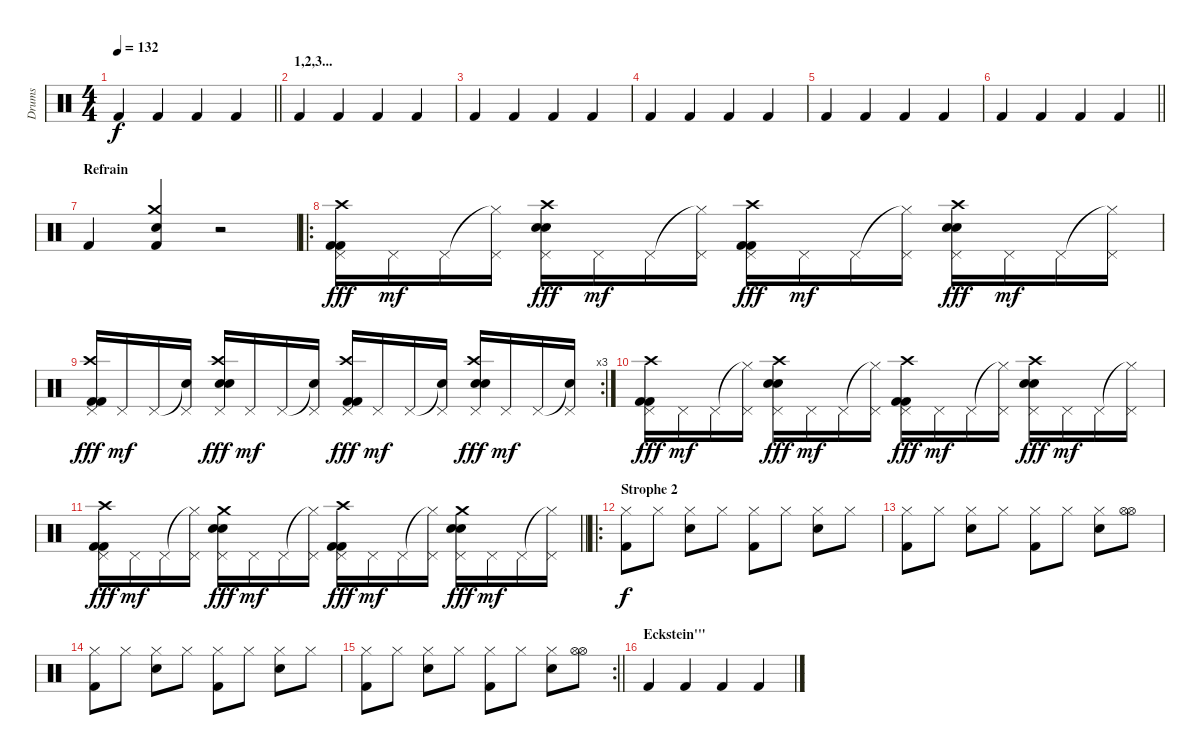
\track ("Drums" "Drums") {instrument percussion}
\staff {score}
\articulation defaults
\ts (4 4)
\tempo 132
\clef neutral
\barLineRight lightlight
\ks c "Kick (hit) 2".4{dy f} "Kick (hit) 2".4 "Kick (hit) 2".4 "Kick (hit) 2".4
|
\section ("" "1,2,3...")
"Kick (hit) 2".4 "Kick (hit) 2".4 "Kick (hit) 2".4 "Kick (hit) 2".4 |
"Kick (hit) 2".4 "Kick (hit) 2".4 "Kick (hit) 2".4 "Kick (hit) 2".4 |
"Kick (hit) 2".4 "Kick (hit) 2".4 "Kick (hit) 2".4 "Kick (hit) 2".4 |
"Kick (hit) 2".4 "Kick (hit) 2".4 "Kick (hit) 2".4 "Kick (hit) 2".4 |
\barLineRight lightlight "Kick (hit) 2".4 "Kick (hit) 2".4 "Kick (hit) 2".4 "Kick (hit) 2".4
|
\section ("" "Refrain")
"Kick (hit) 2".4 ("Crash medium (hit)" "Electric Snare (hit)" "Kick (hit) 2").4 r.2 |
\ro
("Crash high (hit)" "Pedal Hi-Hat (hit)" "Kick (hit) 2" "Kick (hit) 2").16{dy fff} "Pedal Hi-Hat (hit)".16{dy mf} "Pedal Hi-Hat (hit)".16 ("Hi-Hat (closed)"{t} "Pedal Hi-Hat (hit)").16 ("Crash high (hit)" "Pedal Hi-Hat (hit)" "Electric Snare (hit)" "Electric Snare (hit)").16{dy fff} "Pedal Hi-Hat (hit)".16{dy mf} "Pedal Hi-Hat (hit)".16 ("Hi-Hat (closed)"{t} "Pedal Hi-Hat (hit)").16 ("Crash high (hit)" "Pedal Hi-Hat (hit)" "Kick (hit) 2" "Kick (hit) 2").16{dy fff} "Pedal Hi-Hat (hit)".16{dy mf} "Pedal Hi-Hat (hit)".16 ("Hi-Hat (closed)"{t} "Pedal Hi-Hat (hit)").16 ("Crash high (hit)" "Pedal Hi-Hat (hit)" "Electric Snare (hit)" "Electric Snare (hit)").16{dy fff} "Pedal Hi-Hat (hit)".16{dy mf} "Pedal Hi-Hat (hit)".16 ("Hi-Hat (closed)"{t} "Pedal Hi-Hat (hit)").16 |
\rc 3
("Crash high (hit)" "Pedal Hi-Hat (hit)" "Kick (hit) 2" "Kick (hit) 2").16{dy fff} "Pedal Hi-Hat (hit)".16{dy mf} "Pedal Hi-Hat (hit)".16 ("Snare (hit)"{t} "Pedal Hi-Hat (hit)").16 ("Crash high (hit)" "Pedal Hi-Hat (hit)" "Electric Snare (hit)" "Electric Snare (hit)").16{dy fff} "Pedal Hi-Hat (hit)".16{dy mf} "Pedal Hi-Hat (hit)".16 ("Snare (hit)"{t} "Pedal Hi-Hat (hit)").16 ("Crash high (hit)" "Pedal Hi-Hat (hit)" "Kick (hit) 2" "Kick (hit) 2").16{dy fff} "Pedal Hi-Hat (hit)".16{dy mf} "Pedal Hi-Hat (hit)".16 ("Snare (hit)"{t} "Pedal Hi-Hat (hit)").16 ("Crash high (hit)" "Pedal Hi-Hat (hit)" "Electric Snare (hit)" "Electric Snare (hit)").16{dy fff} "Pedal Hi-Hat (hit)".16{dy mf} "Pedal Hi-Hat (hit)".16 ("Snare (hit)"{t} "Pedal Hi-Hat (hit)").16 |
("Crash high (hit)" "Pedal Hi-Hat (hit)" "Kick (hit) 2" "Kick (hit) 2").16{dy fff} "Pedal Hi-Hat (hit)".16{dy mf} "Pedal Hi-Hat (hit)".16 ("Hi-Hat (closed)"{t} "Pedal Hi-Hat (hit)").16 ("Crash high (hit)" "Pedal Hi-Hat (hit)" "Electric Snare (hit)" "Electric Snare (hit)").16{dy fff} "Pedal Hi-Hat (hit)".16{dy mf} "Pedal Hi-Hat (hit)".16 ("Hi-Hat (closed)"{t} "Pedal Hi-Hat (hit)").16 ("Crash high (hit)" "Pedal Hi-Hat (hit)" "Kick (hit) 2" "Kick (hit) 2").16{dy fff} "Pedal Hi-Hat (hit)".16{dy mf} "Pedal Hi-Hat (hit)".16 ("Hi-Hat (closed)"{t} "Pedal Hi-Hat (hit)").16 ("Crash high (hit)" "Pedal Hi-Hat (hit)" "Electric Snare (hit)" "Electric Snare (hit)").16{dy fff} "Pedal Hi-Hat (hit)".16{dy mf} "Pedal Hi-Hat (hit)".16 ("Hi-Hat (closed)"{t} "Pedal Hi-Hat (hit)").16 |
\barLineRight lightlight
("Crash high (hit)" "Pedal Hi-Hat (hit)" "Kick (hit) 2" "Kick (hit) 2").16{dy fff} "Pedal Hi-Hat (hit)".16{dy mf} "Pedal Hi-Hat (hit)".16 ("Hi-Hat (closed)"{t} "Pedal Hi-Hat (hit)").16 ("Crash medium (hit)" "Pedal Hi-Hat (hit)" "Electric Snare (hit)" "Electric Snare (hit)").16{dy fff} "Pedal Hi-Hat (hit)".16{dy mf} "Pedal Hi-Hat (hit)".16 ("Hi-Hat (closed)"{t} "Pedal Hi-Hat (hit)").16 ("Crash high (hit)" "Pedal Hi-Hat (hit)" "Kick (hit) 2" "Kick (hit) 2").16{dy fff} "Pedal Hi-Hat (hit)".16{dy mf} "Pedal Hi-Hat (hit)".16 ("Hi-Hat (closed)"{t} "Pedal Hi-Hat (hit)").16 ("Crash medium (hit)" "Pedal Hi-Hat (hit)" "Electric Snare (hit)" "Electric Snare (hit)").16{dy fff} "Pedal Hi-Hat (hit)".16{dy mf} "Pedal Hi-Hat (hit)".16 ("Hi-Hat (closed)"{t} "Pedal Hi-Hat (hit)").16 |
\ro
\section ("" "Strophe 2")
("Hi-Hat (closed)" "Kick (hit) 2").8{dy f} "Hi-Hat (closed)".8 ("Hi-Hat (closed)" "Electric Snare (hit)").8 "Hi-Hat (closed)".8 ("Hi-Hat (closed)" "Kick (hit) 2").8 "Hi-Hat (closed)".8 ("Hi-Hat (closed)" "Electric Snare (hit)").8 "Hi-Hat (closed)".8 |
("Hi-Hat (closed)" "Kick (hit) 2").8 "Hi-Hat (closed)".8 ("Hi-Hat (closed)" "Electric Snare (hit)").8 "Hi-Hat (closed)".8 ("Hi-Hat (closed)" "Kick (hit) 2").8 "Hi-Hat (closed)".8 ("Hi-Hat (closed)" "Electric Snare (hit)").8 ("Hi-Hat (open)" "Hi-Hat (open)").8 |
("Hi-Hat (closed)" "Kick (hit) 2").8 "Hi-Hat (closed)".8 ("Hi-Hat (closed)" "Electric Snare (hit)").8 "Hi-Hat (closed)".8 ("Hi-Hat (closed)" "Kick (hit) 2").8 "Hi-Hat (closed)".8 ("Hi-Hat (closed)" "Electric Snare (hit)").8 "Hi-Hat (closed)".8 |
\rc 2
\barLineRight lightlight
("Hi-Hat (closed)" "Kick (hit) 2").8 "Hi-Hat (closed)".8 ("Hi-Hat (closed)" "Electric Snare (hit)").8 "Hi-Hat (closed)".8 ("Hi-Hat (closed)" "Kick (hit) 2").8 "Hi-Hat (closed)".8 ("Hi-Hat (closed)" "Electric Snare (hit)").8 ("Hi-Hat (open)" "Hi-Hat (open)").8 |
\section ("" "Eckstein'''")
"Kick (hit) 2".4 "Kick (hit) 2".4 "Kick (hit) 2".4 "Kick (hit) 2".4
